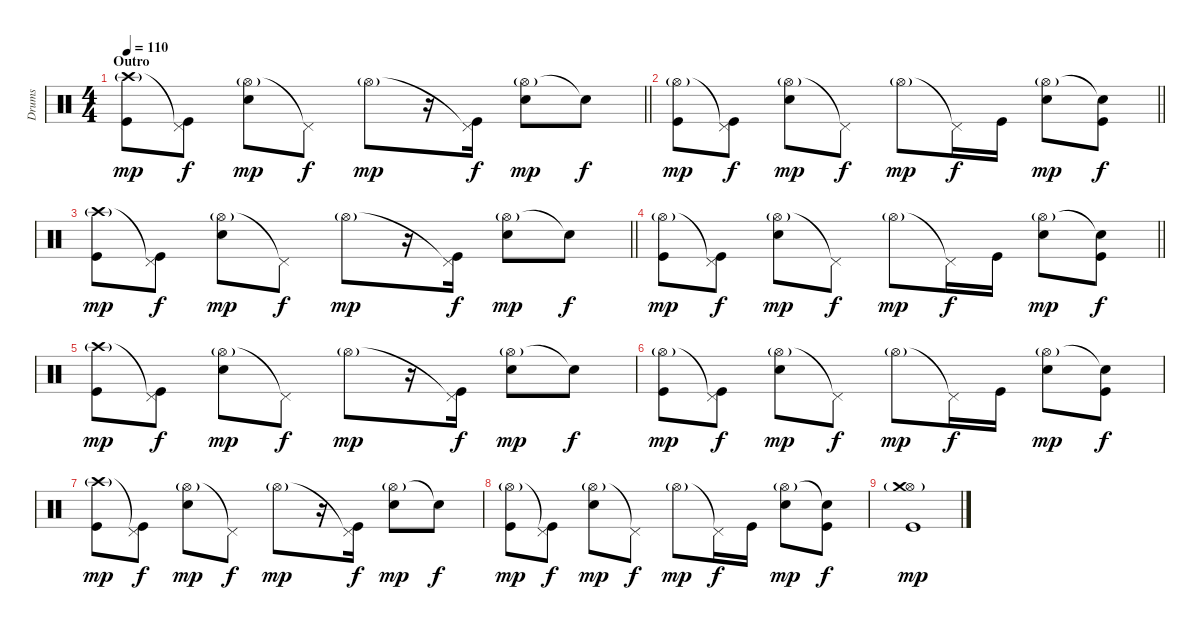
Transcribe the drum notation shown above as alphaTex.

\track ("Drums" "Drums") {instrument percussion}
\staff {score}
\articulation defaults
\ts (4 4)
\section ("" "Outro")
\tempo 110
\clef neutral
\barLineRight lightlight
\ks c
("Crash high (hit)"{g} "Kick (hit)").8{dy mp} ("Pedal Hi-Hat (hit)"{t} "Kick (hit)").8{dy f} ("Hi-Hat (open)"{g} "Electric Snare (hit)").8{dy mp} "Pedal Hi-Hat (hit)"{t}.8{dy f} "Hi-Hat (open)"{g}.8{dy mp} r.16 ("Pedal Hi-Hat (hit)"{t} "Kick (hit)").16{dy f} ("Hi-Hat (open)"{g} "Electric Snare (hit)").8{dy mp} "Snare (hit)"{t}.8{dy f} |
\barLineRight lightlight
("Hi-Hat (open)"{g} "Kick (hit)").8{dy mp} ("Pedal Hi-Hat (hit)"{t} "Kick (hit)").8{dy f} ("Hi-Hat (open)"{g} "Electric Snare (hit)").8{dy mp} "Pedal Hi-Hat (hit)"{t}.8{dy f} "Hi-Hat (open)"{g}.8{dy mp} "Pedal Hi-Hat (hit)"{t}.16{dy f} "Kick (hit)".16 ("Hi-Hat (open)"{g} "Electric Snare (hit)").8{dy mp} ("Snare (hit)"{t} "Kick (hit)").8{dy f} |
\barLineRight lightlight
("Crash high (hit)"{g} "Kick (hit)").8{dy mp} ("Pedal Hi-Hat (hit)"{t} "Kick (hit)").8{dy f} ("Hi-Hat (open)"{g} "Electric Snare (hit)").8{dy mp} "Pedal Hi-Hat (hit)"{t}.8{dy f} "Hi-Hat (open)"{g}.8{dy mp} r.16 ("Pedal Hi-Hat (hit)"{t} "Kick (hit)").16{dy f} ("Hi-Hat (open)"{g} "Electric Snare (hit)").8{dy mp} "Snare (hit)"{t}.8{dy f} |
\barLineRight lightlight
("Hi-Hat (open)"{g} "Kick (hit)").8{dy mp} ("Pedal Hi-Hat (hit)"{t} "Kick (hit)").8{dy f} ("Hi-Hat (open)"{g} "Electric Snare (hit)").8{dy mp} "Pedal Hi-Hat (hit)"{t}.8{dy f} "Hi-Hat (open)"{g}.8{dy mp} "Pedal Hi-Hat (hit)"{t}.16{dy f} "Kick (hit)".16 ("Hi-Hat (open)"{g} "Electric Snare (hit)").8{dy mp} ("Snare (hit)"{t} "Kick (hit)").8{dy f} |
("Crash high (hit)"{g} "Kick (hit)").8{dy mp} ("Pedal Hi-Hat (hit)"{t} "Kick (hit)").8{dy f} ("Hi-Hat (open)"{g} "Electric Snare (hit)").8{dy mp} "Pedal Hi-Hat (hit)"{t}.8{dy f} "Hi-Hat (open)"{g}.8{dy mp} r.16 ("Pedal Hi-Hat (hit)"{t} "Kick (hit)").16{dy f} ("Hi-Hat (open)"{g} "Electric Snare (hit)").8{dy mp} "Snare (hit)"{t}.8{dy f} |
("Hi-Hat (open)"{g} "Kick (hit)").8{dy mp} ("Pedal Hi-Hat (hit)"{t} "Kick (hit)").8{dy f} ("Hi-Hat (open)"{g} "Electric Snare (hit)").8{dy mp} "Pedal Hi-Hat (hit)"{t}.8{dy f} "Hi-Hat (open)"{g}.8{dy mp} "Pedal Hi-Hat (hit)"{t}.16{dy f} "Kick (hit)".16 ("Hi-Hat (open)"{g} "Electric Snare (hit)").8{dy mp} ("Snare (hit)"{t} "Kick (hit)").8{dy f} |
("Crash high (hit)"{g} "Kick (hit)").8{dy mp} ("Pedal Hi-Hat (hit)"{t} "Kick (hit)").8{dy f} ("Hi-Hat (open)"{g} "Electric Snare (hit)").8{dy mp} "Pedal Hi-Hat (hit)"{t}.8{dy f} "Hi-Hat (open)"{g}.8{dy mp} r.16 ("Pedal Hi-Hat (hit)"{t} "Kick (hit)").16{dy f} ("Hi-Hat (open)"{g} "Electric Snare (hit)").8{dy mp} "Snare (hit)"{t}.8{dy f} |
("Hi-Hat (open)"{g} "Kick (hit)").8{dy mp} ("Pedal Hi-Hat (hit)"{t} "Kick (hit)").8{dy f} ("Hi-Hat (open)"{g} "Electric Snare (hit)").8{dy mp} "Pedal Hi-Hat (hit)"{t}.8{dy f} "Hi-Hat (open)"{g}.8{dy mp} "Pedal Hi-Hat (hit)"{t}.16{dy f} "Kick (hit)".16 ("Hi-Hat (open)"{g} "Electric Snare (hit)").8{dy mp} ("Snare (hit)"{t} "Kick (hit)").8{dy f} |
("Hi-Hat (open)"{g} "Crash medium (hit)"{g} "Kick (hit)").1{dy mp}
